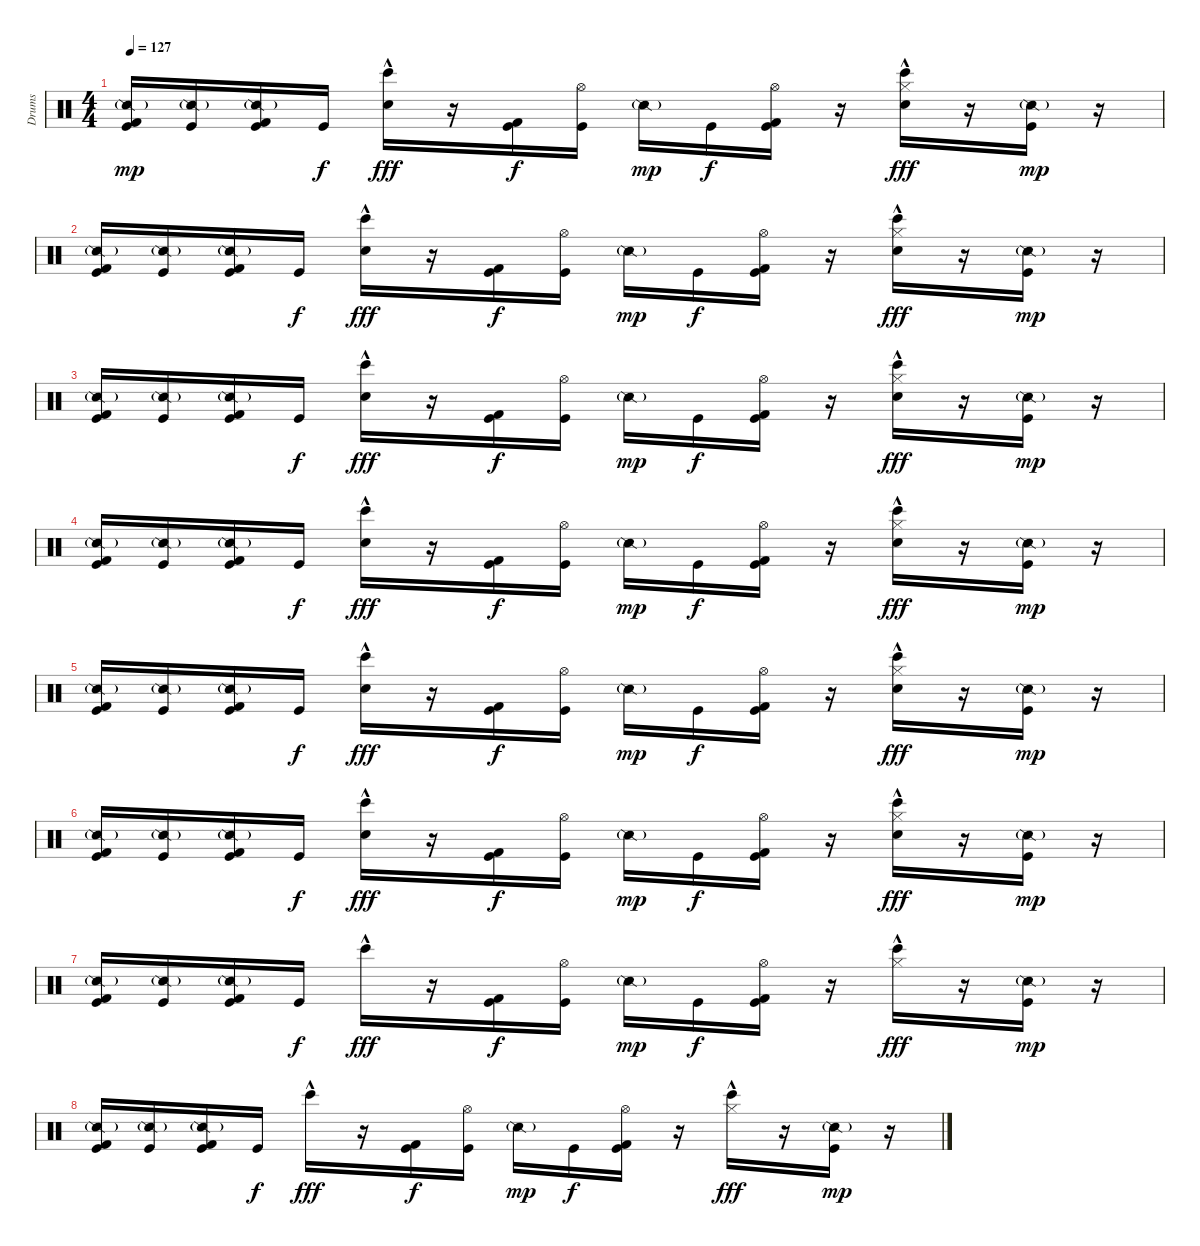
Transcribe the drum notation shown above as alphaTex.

\track ("Drums" "Drums") {instrument percussion}
\staff {score}
\articulation defaults
\ts (4 4)
\tempo 127
\clef neutral
\ks c
("Snare (side stick) 2"{g} "Kick (hit) 2" "Kick (hit)").16{dy mp} ("Snare (side stick) 2"{g} "Kick (hit)").16 ("Snare (side stick) 2"{g} "Kick (hit) 2" "Kick (hit)").16 "Kick (hit)".16{dy f} ("Snare (hit) 2" "Bongo High (hit)"{hac}).16{dy fff} r.16 ("Kick (hit) 2" "Kick (hit)").16{dy f} ("Hi-Hat (open)" "Kick (hit)").16 "Snare (side stick) 2"{g}.16{dy mp} "Kick (hit)".16{dy f} ("Hi-Hat (open)" "Kick (hit) 2" "Kick (hit)").16 r.16 ("Hi-Hat (closed)" "Snare (hit) 2" "Bongo High (hit)"{hac}).16{dy fff} r.16 ("Snare (side stick) 2"{g} "Kick (hit)").16{dy mp} r.16 |
("Snare (side stick) 2"{g} "Kick (hit) 2" "Kick (hit)").16 ("Snare (side stick) 2"{g} "Kick (hit)").16 ("Snare (side stick) 2"{g} "Kick (hit) 2" "Kick (hit)").16 "Kick (hit)".16{dy f} ("Snare (hit) 2" "Bongo High (hit)"{hac}).16{dy fff} r.16 ("Kick (hit) 2" "Kick (hit)").16{dy f} ("Hi-Hat (open)" "Kick (hit)").16 "Snare (side stick) 2"{g}.16{dy mp} "Kick (hit)".16{dy f} ("Hi-Hat (open)" "Kick (hit) 2" "Kick (hit)").16 r.16 ("Hi-Hat (closed)" "Snare (hit) 2" "Bongo High (hit)"{hac}).16{dy fff} r.16 ("Snare (side stick) 2"{g} "Kick (hit)").16{dy mp} r.16 |
("Snare (side stick) 2"{g} "Kick (hit) 2" "Kick (hit)").16 ("Snare (side stick) 2"{g} "Kick (hit)").16 ("Snare (side stick) 2"{g} "Kick (hit) 2" "Kick (hit)").16 "Kick (hit)".16{dy f} ("Snare (hit) 2" "Bongo High (hit)"{hac}).16{dy fff} r.16 ("Kick (hit) 2" "Kick (hit)").16{dy f} ("Hi-Hat (open)" "Kick (hit)").16 "Snare (side stick) 2"{g}.16{dy mp} "Kick (hit)".16{dy f} ("Hi-Hat (open)" "Kick (hit) 2" "Kick (hit)").16 r.16 ("Hi-Hat (closed)" "Snare (hit) 2" "Bongo High (hit)"{hac}).16{dy fff} r.16 ("Snare (side stick) 2"{g} "Kick (hit)").16{dy mp} r.16 |
("Snare (side stick) 2"{g} "Kick (hit) 2" "Kick (hit)").16 ("Snare (side stick) 2"{g} "Kick (hit)").16 ("Snare (side stick) 2"{g} "Kick (hit) 2" "Kick (hit)").16 "Kick (hit)".16{dy f} ("Snare (hit) 2" "Bongo High (hit)"{hac}).16{dy fff} r.16 ("Kick (hit) 2" "Kick (hit)").16{dy f} ("Hi-Hat (open)" "Kick (hit)").16 "Snare (side stick) 2"{g}.16{dy mp} "Kick (hit)".16{dy f} ("Hi-Hat (open)" "Kick (hit) 2" "Kick (hit)").16 r.16 ("Hi-Hat (closed)" "Snare (hit) 2" "Bongo High (hit)"{hac}).16{dy fff} r.16 ("Snare (side stick) 2"{g} "Kick (hit)").16{dy mp} r.16 |
("Snare (side stick) 2"{g} "Kick (hit) 2" "Kick (hit)").16 ("Snare (side stick) 2"{g} "Kick (hit)").16 ("Snare (side stick) 2"{g} "Kick (hit) 2" "Kick (hit)").16 "Kick (hit)".16{dy f} ("Snare (hit) 2" "Bongo High (hit)"{hac}).16{dy fff} r.16 ("Kick (hit) 2" "Kick (hit)").16{dy f} ("Hi-Hat (open)" "Kick (hit)").16 "Snare (side stick) 2"{g}.16{dy mp} "Kick (hit)".16{dy f} ("Hi-Hat (open)" "Kick (hit) 2" "Kick (hit)").16 r.16 ("Hi-Hat (closed)" "Snare (hit) 2" "Bongo High (hit)"{hac}).16{dy fff} r.16 ("Snare (side stick) 2"{g} "Kick (hit)").16{dy mp} r.16 |
("Snare (side stick) 2"{g} "Kick (hit) 2" "Kick (hit)").16 ("Snare (side stick) 2"{g} "Kick (hit)").16 ("Snare (side stick) 2"{g} "Kick (hit) 2" "Kick (hit)").16 "Kick (hit)".16{dy f} ("Snare (hit) 2" "Bongo High (hit)"{hac}).16{dy fff} r.16 ("Kick (hit) 2" "Kick (hit)").16{dy f} ("Hi-Hat (open)" "Kick (hit)").16 "Snare (side stick) 2"{g}.16{dy mp} "Kick (hit)".16{dy f} ("Hi-Hat (open)" "Kick (hit) 2" "Kick (hit)").16 r.16 ("Hi-Hat (closed)" "Snare (hit) 2" "Bongo High (hit)"{hac}).16{dy fff} r.16 ("Snare (side stick) 2"{g} "Kick (hit)").16{dy mp} r.16 |
("Snare (side stick) 2"{g} "Kick (hit) 2" "Kick (hit)").16 ("Snare (side stick) 2"{g} "Kick (hit)").16 ("Snare (side stick) 2"{g} "Kick (hit) 2" "Kick (hit)").16 "Kick (hit)".16{dy f} "Bongo High (hit)"{hac}.16{dy fff} r.16 ("Kick (hit) 2" "Kick (hit)").16{dy f} ("Hi-Hat (open)" "Kick (hit)").16 "Snare (side stick) 2"{g}.16{dy mp} "Kick (hit)".16{dy f} ("Hi-Hat (open)" "Kick (hit) 2" "Kick (hit)").16 r.16 ("Hi-Hat (closed)" "Bongo High (hit)"{hac}).16{dy fff} r.16 ("Snare (side stick) 2"{g} "Kick (hit)").16{dy mp} r.16 |
("Snare (side stick) 2"{g} "Kick (hit) 2" "Kick (hit)").16 ("Snare (side stick) 2"{g} "Kick (hit)").16 ("Snare (side stick) 2"{g} "Kick (hit) 2" "Kick (hit)").16 "Kick (hit)".16{dy f} "Bongo High (hit)"{hac}.16{dy fff} r.16 ("Kick (hit) 2" "Kick (hit)").16{dy f} ("Hi-Hat (open)" "Kick (hit)").16 "Snare (side stick) 2"{g}.16{dy mp} "Kick (hit)".16{dy f} ("Hi-Hat (open)" "Kick (hit) 2" "Kick (hit)").16 r.16 ("Hi-Hat (closed)" "Bongo High (hit)"{hac}).16{dy fff} r.16 ("Snare (side stick) 2"{g} "Kick (hit)").16{dy mp} r.16
